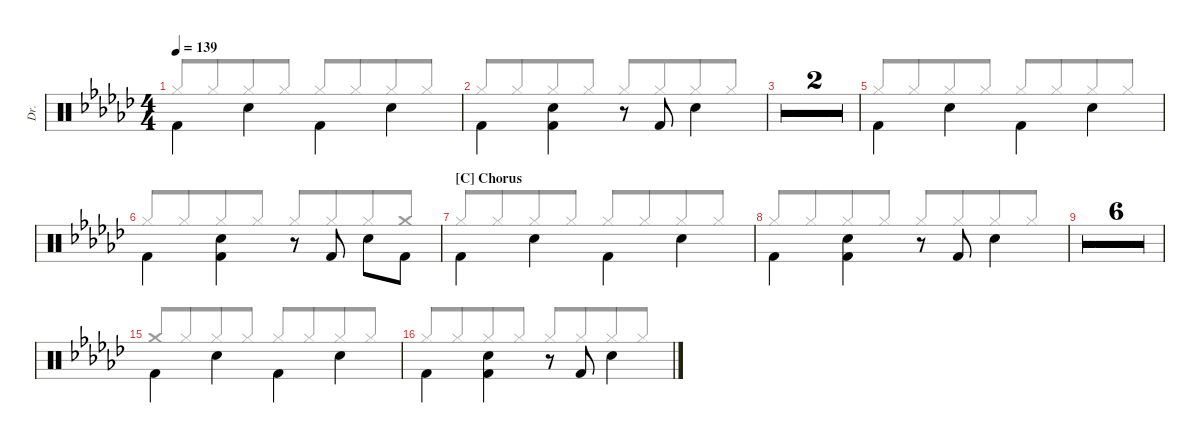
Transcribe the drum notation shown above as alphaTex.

\defaultSystemsLayout 4
\hideDynamics
\bracketExtendMode groupsimilarinstruments
\otherSystemsTrackNameOrientation horizontal
\track ("Drums" "Dr.") {multiBarRest instrument percussion}
\staff {score}
\articulation defaults
\voice
\ts (4 4)
\tempo 139
\clef neutral
\ks gb "Kick (hit) 2"{acc forcenatural}.4{dy f beam Down} "Snare (hit) 2"{acc forcenatural}.4{beam Down} "Kick (hit) 2"{acc forcenatural}.4{beam Down} "Snare (hit) 2"{acc forcenatural}.4{beam Down}
|
"Kick (hit) 2"{acc forcenatural}.4{beam Down} ("Snare (hit) 2"{acc forcenatural} "Kick (hit) 2"{acc forcenatural}).4{beam Down} r.8{beam Up} "Kick (hit) 2"{acc forcenatural}.8{beam Down} "Snare (hit) 2"{acc forcenatural}.4{beam Down} |
\simile firstofdouble
|
\simile secondofdouble
|
\simile none "Kick (hit) 2"{acc forcenatural}.4{beam Down} "Snare (hit) 2"{acc forcenatural}.4{beam Down} "Kick (hit) 2"{acc forcenatural}.4{beam Down} "Snare (hit) 2"{acc forcenatural}.4{beam Down}
|
"Kick (hit) 2"{acc forcenatural}.4{beam Down} ("Snare (hit) 2"{acc forcenatural} "Kick (hit) 2"{acc forcenatural}).4{beam Down} r.8{beam Up} "Kick (hit) 2"{acc forcenatural}.8{beam Down} "Snare (hit) 2"{acc forcenatural}.8{beam Down} "Kick (hit) 2"{acc forcenatural}.8{beam Down} |
\section ("C" "Chorus")
"Kick (hit) 2"{acc forcenatural}.4{beam Down} "Snare (hit) 2"{acc forcenatural}.4{beam Down} "Kick (hit) 2"{acc forcenatural}.4{beam Down} "Snare (hit) 2"{acc forcenatural}.4{beam Down} |
"Kick (hit) 2"{acc forcenatural}.4{beam Down} ("Snare (hit) 2"{acc forcenatural} "Kick (hit) 2"{acc forcenatural}).4{beam Down} r.8{beam Up} "Kick (hit) 2"{acc forcenatural}.8{beam Down} "Snare (hit) 2"{acc forcenatural}.4{beam Down} |
\simile firstofdouble
|
\simile secondofdouble
|
\simile firstofdouble
|
\simile secondofdouble
|
\simile firstofdouble
|
\simile secondofdouble
|
\simile none "Kick (hit) 2"{acc forcenatural}.4{beam Down} "Snare (hit) 2"{acc forcenatural}.4{beam Down} "Kick (hit) 2"{acc forcenatural}.4{beam Down} "Snare (hit) 2"{acc forcenatural}.4{beam Down}
|
"Kick (hit) 2"{acc forcenatural}.4{beam Down} ("Snare (hit) 2"{acc forcenatural} "Kick (hit) 2"{acc forcenatural}).4{beam Down} r.8{beam Up} "Kick (hit) 2"{acc forcenatural}.8{beam Down} "Snare (hit) 2"{acc forcenatural}.4{beam Down}
\voice
\clef neutral
\ottava regular
\simile none
\ks gb "Hi-Hat (closed)"{acc forcenatural}.8{dy f beam Up} "Hi-Hat (closed)"{acc forcenatural}.8{beam Up beam merge} "Hi-Hat (closed)"{acc forcenatural}.8{beam Up} "Hi-Hat (closed)"{acc forcenatural}.8{beam Up} "Hi-Hat (closed)"{acc forcenatural}.8{beam Up} "Hi-Hat (closed)"{acc forcenatural}.8{beam Up beam merge} "Hi-Hat (closed)"{acc forcenatural}.8{beam Up} "Hi-Hat (closed)"{acc forcenatural}.8{beam Up}
|
"Hi-Hat (closed)"{acc forcenatural}.8{beam Up beam merge} "Hi-Hat (closed)"{acc forcenatural}.8{beam Up beam merge} "Hi-Hat (closed)"{acc forcenatural}.8{beam Up} "Hi-Hat (closed)"{acc forcenatural}.8{beam Up} "Hi-Hat (closed)"{acc forcenatural}.8{beam Up} "Hi-Hat (closed)"{acc forcenatural}.8{beam Up beam merge} "Hi-Hat (closed)"{acc forcenatural}.8{beam Up beam merge} "Hi-Hat (closed)"{acc forcenatural}.8{beam Up} |
\simile firstofdouble
|
\simile secondofdouble
|
\simile none "Hi-Hat (closed)"{acc forcenatural}.8{beam Up} "Hi-Hat (closed)"{acc forcenatural}.8{beam Up beam merge} "Hi-Hat (closed)"{acc forcenatural}.8{beam Up} "Hi-Hat (closed)"{acc forcenatural}.8{beam Up} "Hi-Hat (closed)"{acc forcenatural}.8{beam Up} "Hi-Hat (closed)"{acc forcenatural}.8{beam Up beam merge} "Hi-Hat (closed)"{acc forcenatural}.8{beam Up} "Hi-Hat (closed)"{acc forcenatural}.8{beam Up}
|
"Hi-Hat (closed)"{acc forcenatural}.8{beam Up beam merge} "Hi-Hat (closed)"{acc forcenatural}.8{beam Up beam merge} "Hi-Hat (closed)"{acc forcenatural}.8{beam Up} "Hi-Hat (closed)"{acc forcenatural}.8{beam Up} "Hi-Hat (closed)"{acc forcenatural}.8{beam Up} "Hi-Hat (closed)"{acc forcenatural}.8{beam Up beam merge} "Hi-Hat (closed)"{acc forcenatural}.8{beam Up beam merge} "Crash medium (hit)"{acc forcenatural}.8{beam Up} |
"Hi-Hat (closed)"{acc forcenatural}.8{beam Up} "Hi-Hat (closed)"{acc forcenatural}.8{beam Up beam merge} "Hi-Hat (closed)"{acc forcenatural}.8{beam Up} "Hi-Hat (closed)"{acc forcenatural}.8{beam Up} "Hi-Hat (closed)"{acc forcenatural}.8{beam Up} "Hi-Hat (closed)"{acc forcenatural}.8{beam Up beam merge} "Hi-Hat (closed)"{acc forcenatural}.8{beam Up} "Hi-Hat (closed)"{acc forcenatural}.8{beam Up} |
"Hi-Hat (closed)"{acc forcenatural}.8{beam Up} "Hi-Hat (closed)"{acc forcenatural}.8{beam Up beam merge} "Hi-Hat (closed)"{acc forcenatural}.8{beam Up} "Hi-Hat (closed)"{acc forcenatural}.8{beam Up} "Hi-Hat (closed)"{acc forcenatural}.8{beam Up beam merge} "Hi-Hat (closed)"{acc forcenatural}.8{beam Up beam merge} "Hi-Hat (closed)"{acc forcenatural}.8{beam Up beam merge} "Hi-Hat (closed)"{acc forcenatural}.8{beam Up} |
\simile firstofdouble
|
\simile secondofdouble
|
\simile firstofdouble
|
\simile secondofdouble
|
\simile firstofdouble
|
\simile secondofdouble
|
\simile none "Crash medium (hit)"{acc forcenatural}.8{beam Up} "Hi-Hat (closed)"{acc forcenatural}.8{beam Up beam merge} "Hi-Hat (closed)"{acc forcenatural}.8{beam Up} "Hi-Hat (closed)"{acc forcenatural}.8{beam Up} "Hi-Hat (closed)"{acc forcenatural}.8{beam Up} "Hi-Hat (closed)"{acc forcenatural}.8{beam Up beam merge} "Hi-Hat (closed)"{acc forcenatural}.8{beam Up} "Hi-Hat (closed)"{acc forcenatural}.8{beam Up}
|
"Hi-Hat (closed)"{acc forcenatural}.8{beam Up} "Hi-Hat (closed)"{acc forcenatural}.8{beam Up beam merge} "Hi-Hat (closed)"{acc forcenatural}.8{beam Up} "Hi-Hat (closed)"{acc forcenatural}.8{beam Up} "Hi-Hat (closed)"{acc forcenatural}.8{beam Up beam merge} "Hi-Hat (closed)"{acc forcenatural}.8{beam Up beam merge} "Hi-Hat (closed)"{acc forcenatural}.8{beam Up beam merge} "Hi-Hat (closed)"{acc forcenatural}.8{beam Up}
